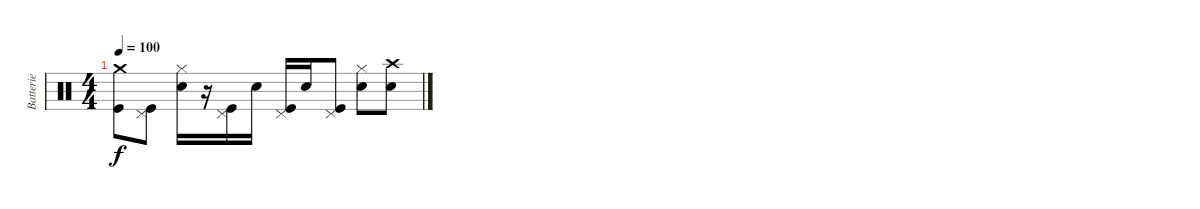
\track ("Batterie" "Batterie") {instrument percussion}
\staff {score}
\articulation defaults
\ts (4 4)
\tempo 100
\clef neutral
\ks c
("Crash medium (hit)" "Kick (hit)").8{dy f} ("Pedal Hi-Hat (hit)" "Kick (hit)").8 ("Hi-Hat (closed)" "Electric Snare (hit)").16 r.16 ("Pedal Hi-Hat (hit)" "Kick (hit)").16 "Electric Snare (hit)".16 ("Pedal Hi-Hat (hit)" "Kick (hit)").16 "Electric Snare (hit)".16 ("Pedal Hi-Hat (hit)" "Kick (hit)").8 ("Hi-Hat (closed)" "Electric Snare (hit)").8 ("Crash high (hit)" "Electric Snare (hit)").8
